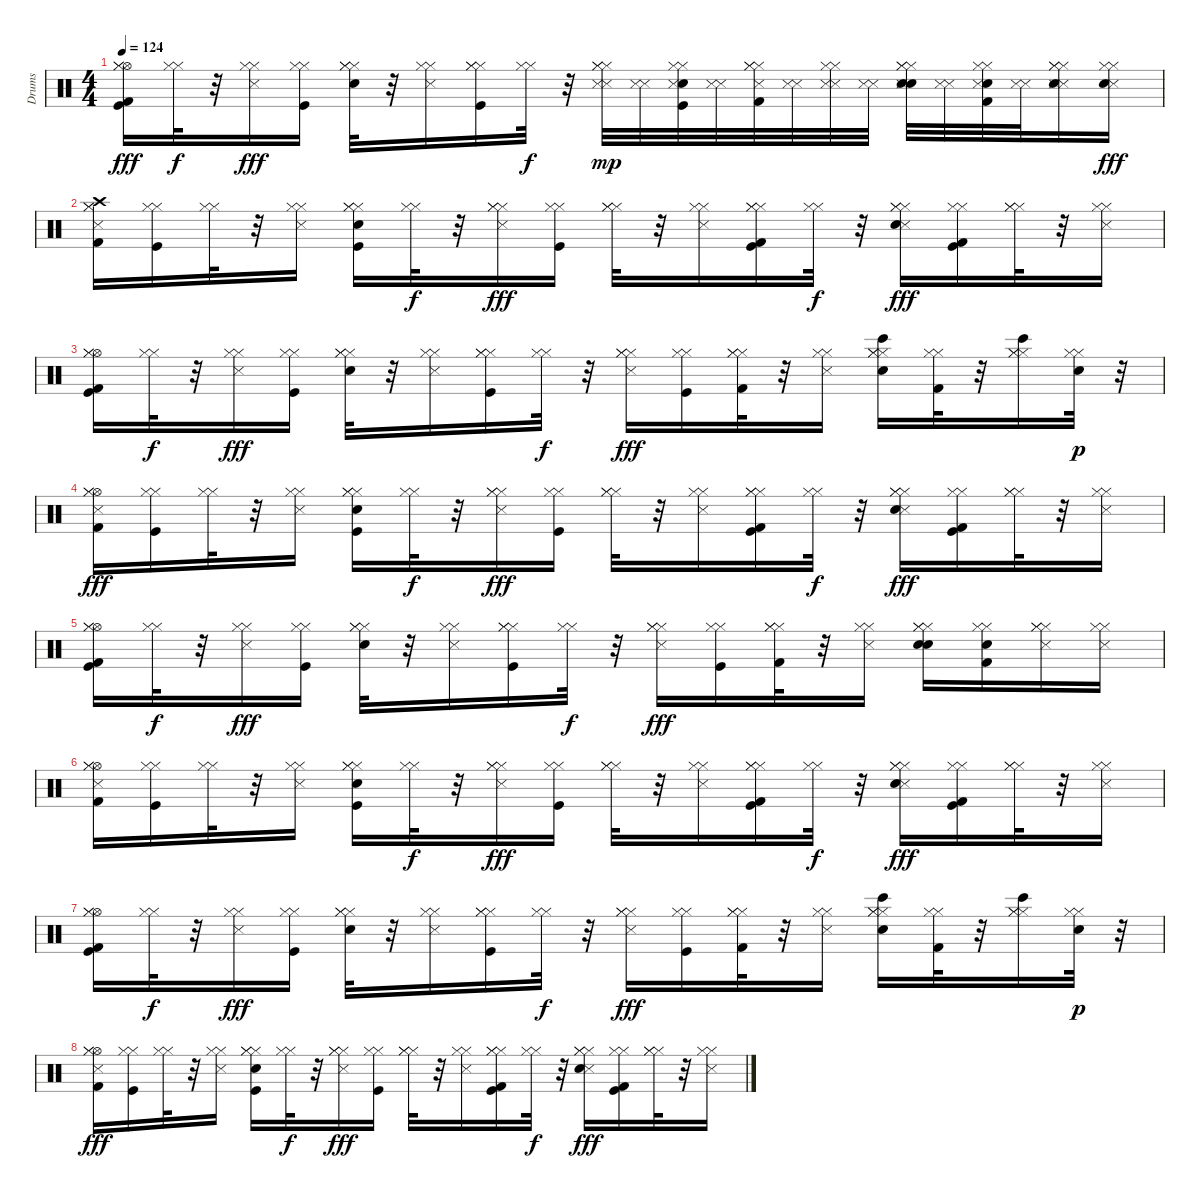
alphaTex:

\track ("Drums" "Drums") {instrument percussion}
\staff {score}
\articulation defaults
\ts (4 4)
\tempo 124
\clef neutral
\ks c
("Kick (hit)" "Kick (hit) 2" "Hi-Hat (open)" "Hi-Hat (closed)" "Hi-Hat (closed)").16{dy fff} ("Hi-Hat (closed)" "Hi-Hat (closed)").32{dy f} r.32 ("Metronome (hit)" "Hi-Hat (closed)" "Hi-Hat (closed)").16{dy fff} ("Kick (hit)" "Hi-Hat (closed)" "Hi-Hat (closed)").16 ("Hi-Hat (closed)" "Electric Snare (hit)" "Hi-Hat (closed)" "Hi-Hat (closed)").32 r.32 ("Metronome (hit)" "Hi-Hat (closed)" "Hi-Hat (closed)").16 ("Kick (hit)" "Hi-Hat (closed)" "Hi-Hat (closed)" "Hi-Hat (closed)").16 ("Hi-Hat (closed)" "Hi-Hat (closed)").32{dy f} r.32 ("Metronome (hit)" "Hi-Hat (closed)" "Hi-Hat (closed)" "Hi-Hat (closed)" "Snare (side stick) 3").32{dy mp} ("Snare (side stick) 3" "Snare (side stick) 3").32 ("Kick (hit)" "Electric Snare (hit)" "Hi-Hat (closed)" "Hi-Hat (closed)" "Snare (side stick) 3").32 ("Snare (side stick) 3" "Snare (side stick) 3").32 ("Kick (hit) 2" "Hi-Hat (closed)" "Hi-Hat (closed)" "Hi-Hat (closed)" "Snare (side stick) 3").32 ("Snare (side stick) 3" "Snare (side stick) 3").32 ("Metronome (hit)" "Hi-Hat (closed)" "Hi-Hat (closed)" "Snare (side stick) 3").32 ("Snare (side stick) 3" "Snare (side stick) 3").32 ("Hand Clap (hit)" "Hi-Hat (closed)" "Electric Snare (hit)" "Hi-Hat (closed)" "Hi-Hat (closed)" "Snare (side stick) 3").32 ("Snare (side stick) 3" "Snare (side stick) 3").32 ("Hand Clap (hit)" "Kick (hit) 2" "Hi-Hat (closed)" "Hi-Hat (closed)" "Snare (side stick) 3").32 ("Snare (side stick) 3" "Snare (side stick) 3").32 ("Snare (side stick) 3" "Electric Snare (hit)" "Hi-Hat (closed)" "Hi-Hat (closed)" "Hi-Hat (closed)" "Snare (side stick) 3").16 ("Snare (side stick) 3" "Electric Snare (hit)" "Hi-Hat (closed)" "Hi-Hat (closed)").16{dy fff} |
("Metronome (hit)" "Crash high (hit)" "Kick (hit) 2" "Hi-Hat (closed)" "Hi-Hat (closed)").16 ("Kick (hit)" "Hi-Hat (closed)" "Hi-Hat (closed)").16 ("Hi-Hat (closed)" "Hi-Hat (closed)").32 r.32 ("Metronome (hit)" "Hi-Hat (closed)" "Hi-Hat (closed)").16 ("Kick (hit)" "Hi-Hat (closed)" "Electric Snare (hit)" "Hi-Hat (closed)" "Hi-Hat (closed)").16 ("Hi-Hat (closed)" "Hi-Hat (closed)").32{dy f} r.32 ("Metronome (hit)" "Hi-Hat (closed)" "Hi-Hat (closed)" "Hi-Hat (closed)").16{dy fff} ("Kick (hit)" "Hi-Hat (closed)" "Hi-Hat (closed)").16 ("Hi-Hat (closed)" "Hi-Hat (closed)" "Hi-Hat (closed)").32 r.32 ("Metronome (hit)" "Hi-Hat (closed)" "Hi-Hat (closed)").16 ("Kick (hit)" "Hi-Hat (closed)" "Kick (hit) 2" "Hi-Hat (closed)" "Hi-Hat (closed)").16 ("Hi-Hat (closed)" "Hi-Hat (closed)").32{dy f} r.32 ("Metronome (hit)" "Hi-Hat (closed)" "Electric Snare (hit)" "Hi-Hat (closed)" "Hi-Hat (closed)").16{dy fff} ("Kick (hit)" "Kick (hit) 2" "Hi-Hat (closed)" "Hi-Hat (closed)").16 ("Hi-Hat (closed)" "Hi-Hat (closed)" "Hi-Hat (closed)").32 r.32 ("Metronome (hit)" "Hi-Hat (closed)" "Hi-Hat (closed)").16 |
("Kick (hit)" "Hi-Hat (open)" "Kick (hit) 2" "Hi-Hat (closed)" "Hi-Hat (closed)").16 ("Hi-Hat (closed)" "Hi-Hat (closed)").32{dy f} r.32 ("Metronome (hit)" "Hi-Hat (closed)" "Hi-Hat (closed)").16{dy fff} ("Kick (hit)" "Hi-Hat (closed)" "Hi-Hat (closed)").16 ("Electric Snare (hit)" "Hi-Hat (closed)" "Hi-Hat (closed)" "Hi-Hat (closed)").32 r.32 ("Metronome (hit)" "Hi-Hat (closed)" "Hi-Hat (closed)").16 ("Kick (hit)" "Hi-Hat (closed)" "Hi-Hat (closed)" "Hi-Hat (closed)").16 ("Hi-Hat (closed)" "Hi-Hat (closed)").32{dy f} r.32 ("Metronome (hit)" "Hi-Hat (closed)" "Hi-Hat (closed)" "Hi-Hat (closed)").16{dy fff} ("Kick (hit)" "Hi-Hat (closed)" "Hi-Hat (closed)").16 ("Hi-Hat (closed)" "Kick (hit) 2" "Hi-Hat (closed)" "Hi-Hat (closed)").32 r.32 ("Metronome (hit)" "Hi-Hat (closed)" "Hi-Hat (closed)").16 ("Bongo High (hit)" "Electric Snare (hit)" "Hi-Hat (closed)" "Hi-Hat (closed)" "Hi-Hat (closed)").16 ("Kick (hit) 2" "Hi-Hat (closed)" "Hi-Hat (closed)").32 r.32 ("Bongo High (hit)" "Hi-Hat (closed)" "Hi-Hat (closed)" "Hi-Hat (closed)").16 ("Hi-Hat (closed)" "Hi-Hat (closed)" "Electric Snare (hit)").32{dy p} r.32 |
("Metronome (hit)" "Kick (hit) 2" "Hi-Hat (open)" "Hi-Hat (closed)" "Hi-Hat (closed)").16{dy fff} ("Kick (hit)" "Hi-Hat (closed)" "Hi-Hat (closed)").16 ("Hi-Hat (closed)" "Hi-Hat (closed)").32 r.32 ("Metronome (hit)" "Hi-Hat (closed)" "Hi-Hat (closed)").16 ("Kick (hit)" "Electric Snare (hit)" "Hi-Hat (closed)" "Hi-Hat (closed)" "Hi-Hat (closed)").16 ("Hi-Hat (closed)" "Hi-Hat (closed)").32{dy f} r.32 ("Metronome (hit)" "Hi-Hat (closed)" "Hi-Hat (closed)" "Hi-Hat (closed)").16{dy fff} ("Kick (hit)" "Hi-Hat (closed)" "Hi-Hat (closed)").16 ("Hi-Hat (closed)" "Hi-Hat (closed)" "Hi-Hat (closed)").32 r.32 ("Metronome (hit)" "Hi-Hat (closed)" "Hi-Hat (closed)").16 ("Kick (hit)" "Kick (hit) 2" "Hi-Hat (closed)" "Hi-Hat (closed)" "Hi-Hat (closed)").16 ("Hi-Hat (closed)" "Hi-Hat (closed)").32{dy f} r.32 ("Metronome (hit)" "Electric Snare (hit)" "Hi-Hat (closed)" "Hi-Hat (closed)" "Hi-Hat (closed)").16{dy fff} ("Kick (hit)" "Kick (hit) 2" "Hi-Hat (closed)" "Hi-Hat (closed)").16 ("Hi-Hat (closed)" "Hi-Hat (closed)" "Hi-Hat (closed)").32 r.32 ("Metronome (hit)" "Hi-Hat (closed)" "Hi-Hat (closed)").16 |
("Kick (hit)" "Kick (hit) 2" "Hi-Hat (open)" "Hi-Hat (closed)" "Hi-Hat (closed)").16 ("Hi-Hat (closed)" "Hi-Hat (closed)").32{dy f} r.32 ("Metronome (hit)" "Hi-Hat (closed)" "Hi-Hat (closed)").16{dy fff} ("Kick (hit)" "Hi-Hat (closed)" "Hi-Hat (closed)").16 ("Hi-Hat (closed)" "Electric Snare (hit)" "Hi-Hat (closed)" "Hi-Hat (closed)").32 r.32 ("Metronome (hit)" "Hi-Hat (closed)" "Hi-Hat (closed)").16 ("Kick (hit)" "Hi-Hat (closed)" "Hi-Hat (closed)" "Hi-Hat (closed)").16 ("Hi-Hat (closed)" "Hi-Hat (closed)").32{dy f} r.32 ("Metronome (hit)" "Hi-Hat (closed)" "Hi-Hat (closed)" "Hi-Hat (closed)").16{dy fff} ("Kick (hit)" "Hi-Hat (closed)" "Hi-Hat (closed)").16 ("Kick (hit) 2" "Hi-Hat (closed)" "Hi-Hat (closed)" "Hi-Hat (closed)").32 r.32 ("Metronome (hit)" "Hi-Hat (closed)" "Hi-Hat (closed)").16 ("Hand Clap (hit)" "Hi-Hat (closed)" "Electric Snare (hit)" "Hi-Hat (closed)" "Hi-Hat (closed)").16 ("Hand Clap (hit)" "Kick (hit) 2" "Hi-Hat (closed)" "Hi-Hat (closed)").16 ("Snare (side stick) 3" "Hi-Hat (closed)" "Hi-Hat (closed)" "Hi-Hat (closed)").16 ("Snare (side stick) 3" "Hi-Hat (closed)" "Hi-Hat (closed)").16 |
("Metronome (hit)" "Kick (hit) 2" "Hi-Hat (open)" "Hi-Hat (closed)" "Hi-Hat (closed)").16 ("Kick (hit)" "Hi-Hat (closed)" "Hi-Hat (closed)").16 ("Hi-Hat (closed)" "Hi-Hat (closed)").32 r.32 ("Metronome (hit)" "Hi-Hat (closed)" "Hi-Hat (closed)").16 ("Kick (hit)" "Hi-Hat (closed)" "Electric Snare (hit)" "Hi-Hat (closed)" "Hi-Hat (closed)").16 ("Hi-Hat (closed)" "Hi-Hat (closed)").32{dy f} r.32 ("Metronome (hit)" "Hi-Hat (closed)" "Hi-Hat (closed)" "Hi-Hat (closed)").16{dy fff} ("Kick (hit)" "Hi-Hat (closed)" "Hi-Hat (closed)").16 ("Hi-Hat (closed)" "Hi-Hat (closed)" "Hi-Hat (closed)").32 r.32 ("Metronome (hit)" "Hi-Hat (closed)" "Hi-Hat (closed)").16 ("Kick (hit)" "Hi-Hat (closed)" "Kick (hit) 2" "Hi-Hat (closed)" "Hi-Hat (closed)").16 ("Hi-Hat (closed)" "Hi-Hat (closed)").32{dy f} r.32 ("Metronome (hit)" "Hi-Hat (closed)" "Electric Snare (hit)" "Hi-Hat (closed)" "Hi-Hat (closed)").16{dy fff} ("Kick (hit)" "Kick (hit) 2" "Hi-Hat (closed)" "Hi-Hat (closed)").16 ("Hi-Hat (closed)" "Hi-Hat (closed)" "Hi-Hat (closed)").32 r.32 ("Metronome (hit)" "Hi-Hat (closed)" "Hi-Hat (closed)").16 |
("Kick (hit)" "Hi-Hat (open)" "Kick (hit) 2" "Hi-Hat (closed)" "Hi-Hat (closed)").16 ("Hi-Hat (closed)" "Hi-Hat (closed)").32{dy f} r.32 ("Metronome (hit)" "Hi-Hat (closed)" "Hi-Hat (closed)").16{dy fff} ("Kick (hit)" "Hi-Hat (closed)" "Hi-Hat (closed)").16 ("Electric Snare (hit)" "Hi-Hat (closed)" "Hi-Hat (closed)" "Hi-Hat (closed)").32 r.32 ("Metronome (hit)" "Hi-Hat (closed)" "Hi-Hat (closed)").16 ("Kick (hit)" "Hi-Hat (closed)" "Hi-Hat (closed)" "Hi-Hat (closed)").16 ("Hi-Hat (closed)" "Hi-Hat (closed)").32{dy f} r.32 ("Metronome (hit)" "Hi-Hat (closed)" "Hi-Hat (closed)" "Hi-Hat (closed)").16{dy fff} ("Kick (hit)" "Hi-Hat (closed)" "Hi-Hat (closed)").16 ("Hi-Hat (closed)" "Kick (hit) 2" "Hi-Hat (closed)" "Hi-Hat (closed)").32 r.32 ("Metronome (hit)" "Hi-Hat (closed)" "Hi-Hat (closed)").16 ("Bongo High (hit)" "Electric Snare (hit)" "Hi-Hat (closed)" "Hi-Hat (closed)" "Hi-Hat (closed)").16 ("Kick (hit) 2" "Hi-Hat (closed)" "Hi-Hat (closed)").32 r.32 ("Bongo High (hit)" "Hi-Hat (closed)" "Hi-Hat (closed)" "Hi-Hat (closed)").16 ("Hi-Hat (closed)" "Hi-Hat (closed)" "Electric Snare (hit)").32{dy p} r.32 |
("Metronome (hit)" "Kick (hit) 2" "Hi-Hat (open)" "Hi-Hat (closed)" "Hi-Hat (closed)").16{dy fff} ("Kick (hit)" "Hi-Hat (closed)" "Hi-Hat (closed)").16 ("Hi-Hat (closed)" "Hi-Hat (closed)").32 r.32 ("Metronome (hit)" "Hi-Hat (closed)" "Hi-Hat (closed)").16 ("Kick (hit)" "Electric Snare (hit)" "Hi-Hat (closed)" "Hi-Hat (closed)" "Hi-Hat (closed)").16 ("Hi-Hat (closed)" "Hi-Hat (closed)").32{dy f} r.32 ("Metronome (hit)" "Hi-Hat (closed)" "Hi-Hat (closed)" "Hi-Hat (closed)").16{dy fff} ("Kick (hit)" "Hi-Hat (closed)" "Hi-Hat (closed)").16 ("Hi-Hat (closed)" "Hi-Hat (closed)" "Hi-Hat (closed)").32 r.32 ("Metronome (hit)" "Hi-Hat (closed)" "Hi-Hat (closed)").16 ("Kick (hit)" "Kick (hit) 2" "Hi-Hat (closed)" "Hi-Hat (closed)" "Hi-Hat (closed)").16 ("Hi-Hat (closed)" "Hi-Hat (closed)").32{dy f} r.32 ("Metronome (hit)" "Electric Snare (hit)" "Hi-Hat (closed)" "Hi-Hat (closed)" "Hi-Hat (closed)").16{dy fff} ("Kick (hit)" "Kick (hit) 2" "Hi-Hat (closed)" "Hi-Hat (closed)").16 ("Hi-Hat (closed)" "Hi-Hat (closed)" "Hi-Hat (closed)").32 r.32 ("Metronome (hit)" "Hi-Hat (closed)" "Hi-Hat (closed)").16
